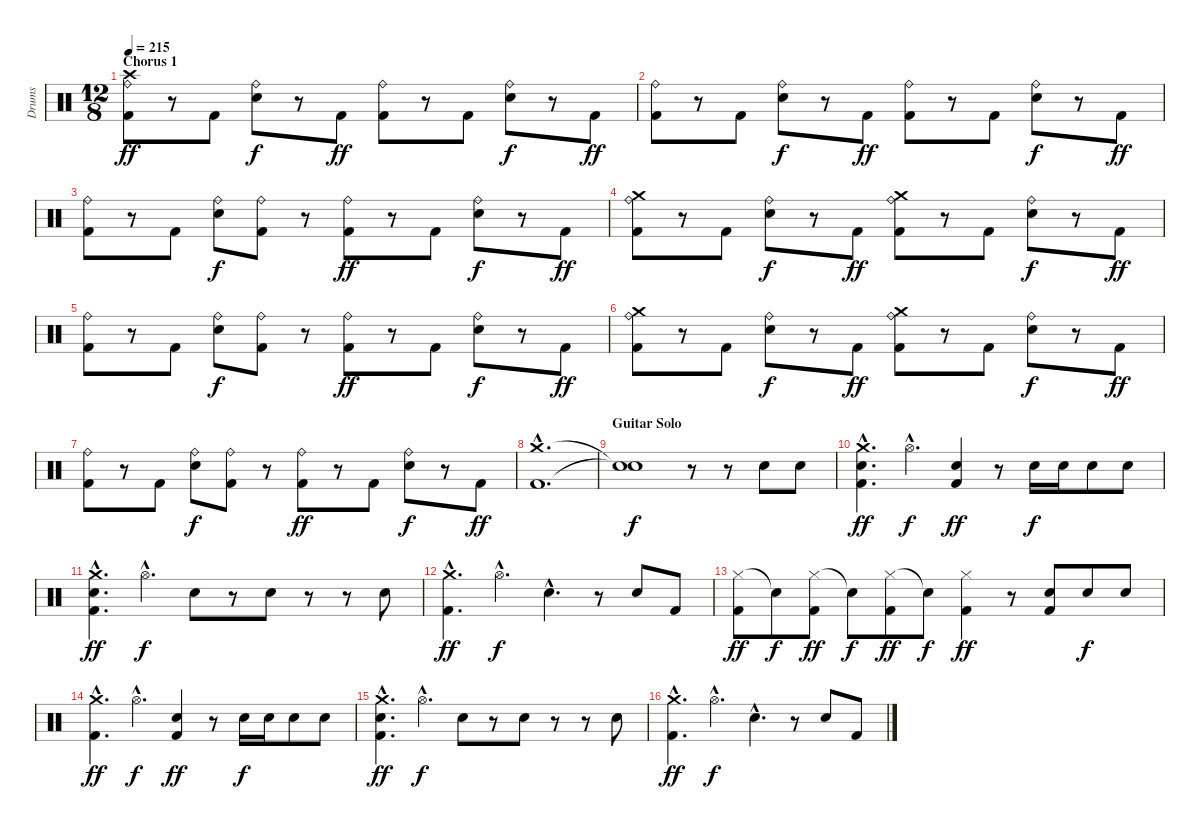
\track ("Drums" "Drums") {instrument percussion}
\staff {score}
\articulation defaults
\ts (12 8)
\section ("" "Chorus 1")
\tempo 215
\clef neutral
\ks c
("Crash high (hit)" "Ride (bell)" "Kick (hit) 2").8{dy ff} r.8 "Kick (hit) 2".8 ("Ride (bell)" "Snare (hit) 2").8{dy f} r.8 "Kick (hit) 2".8{dy ff} ("Ride (bell)" "Kick (hit) 2").8 r.8 "Kick (hit) 2".8 ("Ride (bell)" "Snare (hit) 2").8{dy f} r.8 "Kick (hit) 2".8{dy ff} |
("Ride (bell)" "Kick (hit) 2").8 r.8 "Kick (hit) 2".8 ("Ride (bell)" "Snare (hit) 2").8{dy f} r.8 "Kick (hit) 2".8{dy ff} ("Ride (bell)" "Kick (hit) 2").8 r.8 "Kick (hit) 2".8 ("Ride (bell)" "Snare (hit) 2").8{dy f} r.8 "Kick (hit) 2".8{dy ff} |
("Ride (bell)" "Kick (hit) 2").8 r.8 "Kick (hit) 2".8 ("Ride (bell)" "Snare (hit) 2").8{dy f} ("Ride (bell)" "Kick (hit) 2").8 r.8 ("Ride (bell)" "Kick (hit) 2").8{dy ff} r.8 "Kick (hit) 2".8 ("Ride (bell)" "Snare (hit) 2").8{dy f} r.8 "Kick (hit) 2".8{dy ff} |
("Crash medium (hit)" "Ride (bell)" "Kick (hit) 2").8 r.8 "Kick (hit) 2".8 ("Ride (bell)" "Snare (hit) 2").8{dy f} r.8 "Kick (hit) 2".8{dy ff} ("Crash medium (hit)" "Ride (bell)" "Kick (hit) 2").8 r.8 "Kick (hit) 2".8 ("Ride (bell)" "Snare (hit) 2").8{dy f} r.8 "Kick (hit) 2".8{dy ff} |
("Ride (bell)" "Kick (hit) 2").8 r.8 "Kick (hit) 2".8 ("Ride (bell)" "Snare (hit) 2").8{dy f} ("Ride (bell)" "Kick (hit) 2").8 r.8 ("Ride (bell)" "Kick (hit) 2").8{dy ff} r.8 "Kick (hit) 2".8 ("Ride (bell)" "Snare (hit) 2").8{dy f} r.8 "Kick (hit) 2".8{dy ff} |
("Crash medium (hit)" "Ride (bell)" "Kick (hit) 2").8 r.8 "Kick (hit) 2".8 ("Ride (bell)" "Snare (hit) 2").8{dy f} r.8 "Kick (hit) 2".8{dy ff} ("Crash medium (hit)" "Ride (bell)" "Kick (hit) 2").8 r.8 "Kick (hit) 2".8 ("Ride (bell)" "Snare (hit) 2").8{dy f} r.8 "Kick (hit) 2".8{dy ff} |
("Ride (bell)" "Kick (hit) 2").8 r.8 "Kick (hit) 2".8 ("Ride (bell)" "Snare (hit) 2").8{dy f} ("Ride (bell)" "Kick (hit) 2").8 r.8 ("Ride (bell)" "Kick (hit) 2").8{dy ff} r.8 "Kick (hit) 2".8 ("Ride (bell)" "Snare (hit) 2").8{dy f} r.8 "Kick (hit) 2".8{dy ff} |
("Crash medium (hit)"{hac} "Kick (hit) 2"{hac}).1{d} |
\section ("" "Guitar Solo")
("Snare (hit)"{t} "Snare (hit)"{t}).1{dy f} r.8 r.8 "Snare (hit) 2".8 "Snare (hit) 2".8 |
("Crash medium (hit)"{hac} "Snare (hit) 2"{hac} "Kick (hit) 2"{hac}).4{d dy ff} "Hi-Hat (open)"{hac}.4{d dy f} ("Snare (hit) 2" "Kick (hit) 2").4{dy ff} r.8 "Snare (hit) 2".16{dy f} "Snare (hit) 2".16 "Snare (hit) 2".8 "Snare (hit) 2".8 |
("Crash medium (hit)"{hac} "Snare (hit) 2"{hac} "Kick (hit) 2"{hac}).4{d dy ff} "Hi-Hat (open)"{hac}.4{d dy f} "Snare (hit) 2".8 r.8 "Snare (hit) 2".8 r.8 r.8 "Snare (hit) 2".8 |
("Crash medium (hit)"{hac} "Kick (hit) 2"{hac}).4{d dy ff} "Hi-Hat (open)"{hac}.4{d dy f} "Snare (hit) 2"{hac}.4{d} r.8 "Snare (hit) 2".8 "Kick (hit) 2".8 |
("Hi-Hat (closed)" "Kick (hit) 2").8{dy ff} "Snare (hit)"{t}.8{dy f} ("Hi-Hat (closed)" "Kick (hit) 2").8{dy ff} "Snare (hit)"{t}.8{dy f} ("Hi-Hat (closed)" "Kick (hit) 2").8{dy ff} "Snare (hit)"{t}.8{dy f} ("Hi-Hat (closed)" "Kick (hit) 2").4{dy ff} r.8 ("Snare (hit) 2" "Kick (hit) 2").8 "Snare (hit) 2".8{dy f} "Snare (hit) 2".8 |
("Crash medium (hit)"{hac} "Kick (hit) 2"{hac}).4{d dy ff} "Hi-Hat (open)"{hac}.4{d dy f} ("Snare (hit) 2" "Kick (hit) 2").4{dy ff} r.8 "Snare (hit) 2".16{dy f} "Snare (hit) 2".16 "Snare (hit) 2".8 "Snare (hit) 2".8 |
("Crash medium (hit)"{hac} "Snare (hit) 2"{hac} "Kick (hit) 2"{hac}).4{d dy ff} "Hi-Hat (open)"{hac}.4{d dy f} "Snare (hit) 2".8 r.8 "Snare (hit) 2".8 r.8 r.8 "Snare (hit) 2".8 |
("Crash medium (hit)"{hac} "Kick (hit) 2"{hac}).4{d dy ff} "Hi-Hat (open)"{hac}.4{d dy f} "Snare (hit) 2"{hac}.4{d} r.8 "Snare (hit) 2".8 "Kick (hit) 2".8
